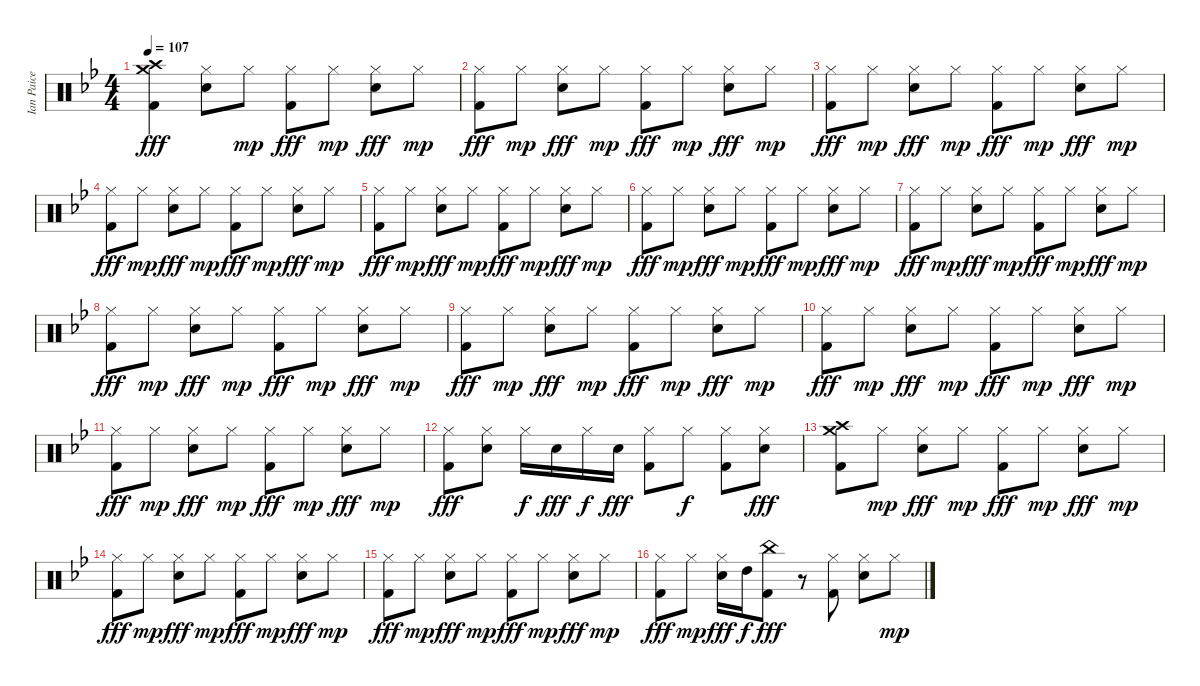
\track ("Ian Paice" "Ian Paice") {instrument percussion}
\staff {score}
\articulation defaults
\ts (4 4)
\tempo 107
\clef neutral
\ks bb
("Crash high (hit)" "Crash medium (hit)" "Kick (hit) 2").4{dy fff} ("Hi-Hat (closed)" "Electric Snare (hit)").8 "Hi-Hat (closed)".8{dy mp} ("Hi-Hat (closed)" "Kick (hit) 2").8{dy fff} "Hi-Hat (closed)".8{dy mp} ("Hi-Hat (closed)" "Electric Snare (hit)").8{dy fff} "Hi-Hat (closed)".8{dy mp} |
("Hi-Hat (closed)" "Kick (hit) 2").8{dy fff} "Hi-Hat (closed)".8{dy mp} ("Hi-Hat (closed)" "Electric Snare (hit)").8{dy fff} "Hi-Hat (closed)".8{dy mp} ("Hi-Hat (closed)" "Kick (hit) 2").8{dy fff} "Hi-Hat (closed)".8{dy mp} ("Hi-Hat (closed)" "Electric Snare (hit)").8{dy fff} "Hi-Hat (closed)".8{dy mp} |
("Hi-Hat (closed)" "Kick (hit) 2").8{dy fff} "Hi-Hat (closed)".8{dy mp} ("Hi-Hat (closed)" "Electric Snare (hit)").8{dy fff} "Hi-Hat (closed)".8{dy mp} ("Hi-Hat (closed)" "Kick (hit) 2").8{dy fff} "Hi-Hat (closed)".8{dy mp} ("Hi-Hat (closed)" "Electric Snare (hit)").8{dy fff} "Hi-Hat (closed)".8{dy mp} |
("Hi-Hat (closed)" "Kick (hit) 2").8{dy fff} "Hi-Hat (closed)".8{dy mp} ("Hi-Hat (closed)" "Electric Snare (hit)").8{dy fff} "Hi-Hat (closed)".8{dy mp} ("Hi-Hat (closed)" "Kick (hit) 2").8{dy fff} "Hi-Hat (closed)".8{dy mp} ("Hi-Hat (closed)" "Electric Snare (hit)").8{dy fff} "Hi-Hat (closed)".8{dy mp} |
("Hi-Hat (closed)" "Kick (hit) 2").8{dy fff} "Hi-Hat (closed)".8{dy mp} ("Hi-Hat (closed)" "Electric Snare (hit)").8{dy fff} "Hi-Hat (closed)".8{dy mp} ("Hi-Hat (closed)" "Kick (hit) 2").8{dy fff} "Hi-Hat (closed)".8{dy mp} ("Hi-Hat (closed)" "Electric Snare (hit)").8{dy fff} "Hi-Hat (closed)".8{dy mp} |
("Hi-Hat (closed)" "Kick (hit) 2").8{dy fff} "Hi-Hat (closed)".8{dy mp} ("Hi-Hat (closed)" "Electric Snare (hit)").8{dy fff} "Hi-Hat (closed)".8{dy mp} ("Hi-Hat (closed)" "Kick (hit) 2").8{dy fff} "Hi-Hat (closed)".8{dy mp} ("Hi-Hat (closed)" "Electric Snare (hit)").8{dy fff} "Hi-Hat (closed)".8{dy mp} |
("Hi-Hat (closed)" "Kick (hit) 2").8{dy fff} "Hi-Hat (closed)".8{dy mp} ("Hi-Hat (closed)" "Electric Snare (hit)").8{dy fff} "Hi-Hat (closed)".8{dy mp} ("Hi-Hat (closed)" "Kick (hit) 2").8{dy fff} "Hi-Hat (closed)".8{dy mp} ("Hi-Hat (closed)" "Electric Snare (hit)").8{dy fff} "Hi-Hat (closed)".8{dy mp} |
("Hi-Hat (closed)" "Kick (hit) 2").8{dy fff} "Hi-Hat (closed)".8{dy mp} ("Hi-Hat (closed)" "Electric Snare (hit)").8{dy fff} "Hi-Hat (closed)".8{dy mp} ("Hi-Hat (closed)" "Kick (hit) 2").8{dy fff} "Hi-Hat (closed)".8{dy mp} ("Hi-Hat (closed)" "Electric Snare (hit)").8{dy fff} "Hi-Hat (closed)".8{dy mp} |
("Hi-Hat (closed)" "Kick (hit) 2").8{dy fff} "Hi-Hat (closed)".8{dy mp} ("Hi-Hat (closed)" "Electric Snare (hit)").8{dy fff} "Hi-Hat (closed)".8{dy mp} ("Hi-Hat (closed)" "Kick (hit) 2").8{dy fff} "Hi-Hat (closed)".8{dy mp} ("Hi-Hat (closed)" "Electric Snare (hit)").8{dy fff} "Hi-Hat (closed)".8{dy mp} |
("Hi-Hat (closed)" "Kick (hit) 2").8{dy fff} "Hi-Hat (closed)".8{dy mp} ("Hi-Hat (closed)" "Electric Snare (hit)").8{dy fff} "Hi-Hat (closed)".8{dy mp} ("Hi-Hat (closed)" "Kick (hit) 2").8{dy fff} "Hi-Hat (closed)".8{dy mp} ("Hi-Hat (closed)" "Electric Snare (hit)").8{dy fff} "Hi-Hat (closed)".8{dy mp} |
("Hi-Hat (closed)" "Kick (hit) 2").8{dy fff} "Hi-Hat (closed)".8{dy mp} ("Hi-Hat (closed)" "Electric Snare (hit)").8{dy fff} "Hi-Hat (closed)".8{dy mp} ("Hi-Hat (closed)" "Kick (hit) 2").8{dy fff} "Hi-Hat (closed)".8{dy mp} ("Hi-Hat (closed)" "Electric Snare (hit)").8{dy fff} "Hi-Hat (closed)".8{dy mp} |
("Hi-Hat (closed)" "Kick (hit) 2").8{dy fff} ("Hi-Hat (closed)" "Electric Snare (hit)").8 "Hi-Hat (closed)".16{dy f} "Electric Snare (hit)".16{dy fff} "Hi-Hat (closed)".16{dy f} "Electric Snare (hit)".16{dy fff} ("Hi-Hat (closed)" "Kick (hit) 2").8 "Hi-Hat (closed)".8{dy f} ("Hi-Hat (closed)" "Kick (hit) 2").8 ("Hi-Hat (closed)" "Electric Snare (hit)").8{dy fff} |
("Crash high (hit)" "Crash medium (hit)" "Kick (hit) 2").8 "Hi-Hat (closed)".8{dy mp} ("Hi-Hat (closed)" "Electric Snare (hit)").8{dy fff} "Hi-Hat (closed)".8{dy mp} ("Hi-Hat (closed)" "Kick (hit) 2").8{dy fff} "Hi-Hat (closed)".8{dy mp} ("Hi-Hat (closed)" "Electric Snare (hit)").8{dy fff} "Hi-Hat (closed)".8{dy mp} |
("Hi-Hat (closed)" "Kick (hit) 2").8{dy fff} "Hi-Hat (closed)".8{dy mp} ("Hi-Hat (closed)" "Electric Snare (hit)").8{dy fff} "Hi-Hat (closed)".8{dy mp} ("Hi-Hat (closed)" "Kick (hit) 2").8{dy fff} "Hi-Hat (closed)".8{dy mp} ("Hi-Hat (closed)" "Electric Snare (hit)").8{dy fff} "Hi-Hat (closed)".8{dy mp} |
("Hi-Hat (closed)" "Kick (hit) 2").8{dy fff} "Hi-Hat (closed)".8{dy mp} ("Hi-Hat (closed)" "Electric Snare (hit)").8{dy fff} "Hi-Hat (closed)".8{dy mp} ("Hi-Hat (closed)" "Kick (hit) 2").8{dy fff} "Hi-Hat (closed)".8{dy mp} ("Hi-Hat (closed)" "Electric Snare (hit)").8{dy fff} "Hi-Hat (closed)".8{dy mp} |
("Hi-Hat (closed)" "Kick (hit) 2").8{dy fff} "Hi-Hat (closed)".8{dy mp} ("Hi-Hat (closed)" "Electric Snare (hit)").16{dy fff} "High Tom (hit)".16{dy f} ("China (hit)" "Kick (hit) 2").8{dy fff} r.8 ("Hi-Hat (closed)" "Kick (hit) 2").8 ("Hi-Hat (closed)" "Electric Snare (hit)").8 "Hi-Hat (closed)".8{dy mp}
